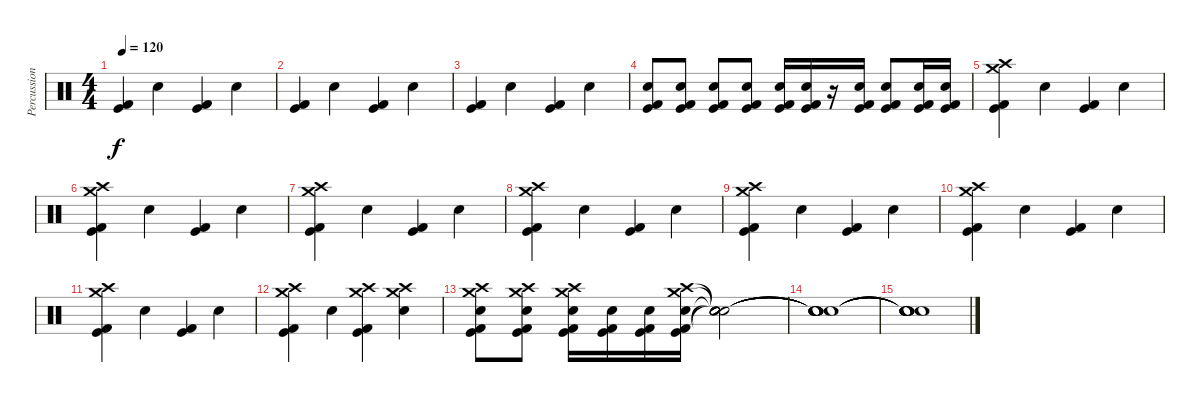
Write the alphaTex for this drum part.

\track ("Percussion" "Percussion") {instrument percussion}
\staff {score}
\articulation defaults
\ts (4 4)
\tempo 120
\clef neutral
\ks c
("Kick (hit)" "Kick (hit) 2").4{dy f} "Snare (hit) 2".4 ("Kick (hit) 2" "Kick (hit)").4 "Snare (hit) 2".4 |
("Kick (hit)" "Kick (hit) 2").4 "Snare (hit) 2".4 ("Kick (hit) 2" "Kick (hit)").4 "Snare (hit) 2".4 |
("Kick (hit)" "Kick (hit) 2").4 "Snare (hit) 2".4 ("Kick (hit) 2" "Kick (hit)").4 "Snare (hit) 2".4 |
("Snare (hit) 2" "Kick (hit) 2" "Kick (hit)").8 ("Snare (hit) 2" "Kick (hit) 2" "Kick (hit)").8 ("Snare (hit) 2" "Kick (hit) 2" "Kick (hit)").8 ("Snare (hit) 2" "Kick (hit) 2" "Kick (hit)").8 ("Snare (hit) 2" "Kick (hit) 2" "Kick (hit)").16 ("Snare (hit) 2" "Kick (hit) 2" "Kick (hit)").16 r.16 ("Snare (hit) 2" "Kick (hit) 2" "Kick (hit)").16 ("Snare (hit) 2" "Kick (hit) 2" "Kick (hit)").8 ("Snare (hit) 2" "Kick (hit) 2" "Kick (hit)").16 ("Snare (hit) 2" "Kick (hit) 2" "Kick (hit)").16 |
("Crash medium (hit)" "Crash high (hit)" "Kick (hit)" "Kick (hit) 2").4 "Snare (hit) 2".4 ("Kick (hit) 2" "Kick (hit)").4 "Snare (hit) 2".4 |
("Crash medium (hit)" "Crash high (hit)" "Kick (hit)" "Kick (hit) 2").4 "Snare (hit) 2".4 ("Kick (hit) 2" "Kick (hit)").4 "Snare (hit) 2".4 |
("Crash medium (hit)" "Crash high (hit)" "Kick (hit)" "Kick (hit) 2").4 "Snare (hit) 2".4 ("Kick (hit) 2" "Kick (hit)").4 "Snare (hit) 2".4 |
("Crash medium (hit)" "Crash high (hit)" "Kick (hit)" "Kick (hit) 2").4 "Snare (hit) 2".4 ("Kick (hit) 2" "Kick (hit)").4 "Snare (hit) 2".4 |
("Crash medium (hit)" "Crash high (hit)" "Kick (hit)" "Kick (hit) 2").4 "Snare (hit) 2".4 ("Kick (hit) 2" "Kick (hit)").4 "Snare (hit) 2".4 |
("Crash medium (hit)" "Crash high (hit)" "Kick (hit)" "Kick (hit) 2").4 "Snare (hit) 2".4 ("Kick (hit) 2" "Kick (hit)").4 "Snare (hit) 2".4 |
("Crash medium (hit)" "Crash high (hit)" "Kick (hit)" "Kick (hit) 2").4 "Snare (hit) 2".4 ("Kick (hit) 2" "Kick (hit)").4 "Snare (hit) 2".4 |
("Crash medium (hit)" "Crash high (hit)" "Kick (hit)" "Kick (hit) 2").4 "Snare (hit) 2".4 ("Crash medium (hit)" "Crash high (hit)" "Kick (hit) 2" "Kick (hit)").4 ("Crash medium (hit)" "Crash high (hit)" "Snare (hit) 2").4 |
("Crash medium (hit)" "Crash high (hit)" "Snare (hit) 2" "Kick (hit) 2" "Kick (hit)").8 ("Crash medium (hit)" "Crash high (hit)" "Snare (hit) 2" "Kick (hit) 2" "Kick (hit)").8 ("Crash medium (hit)" "Crash high (hit)" "Snare (hit) 2" "Kick (hit) 2" "Kick (hit)").16 ("Snare (hit) 2" "Kick (hit) 2" "Kick (hit)").16 ("Snare (hit) 2" "Kick (hit) 2" "Kick (hit)").16 ("Crash medium (hit)" "Crash high (hit)" "Snare (hit) 2" "Kick (hit) 2" "Kick (hit)").16 ("Snare (hit)"{t} "Snare (hit)"{t} "Snare (hit)"{t} "Snare (hit)"{t} "Snare (hit)"{t}).2 |
("Snare (hit)"{t} "Snare (hit)"{t} "Snare (hit)"{t} "Snare (hit)"{t} "Snare (hit)"{t}).1 |
("Snare (hit)"{t} "Snare (hit)"{t} "Snare (hit)"{t} "Snare (hit)"{t} "Snare (hit)"{t}).1
